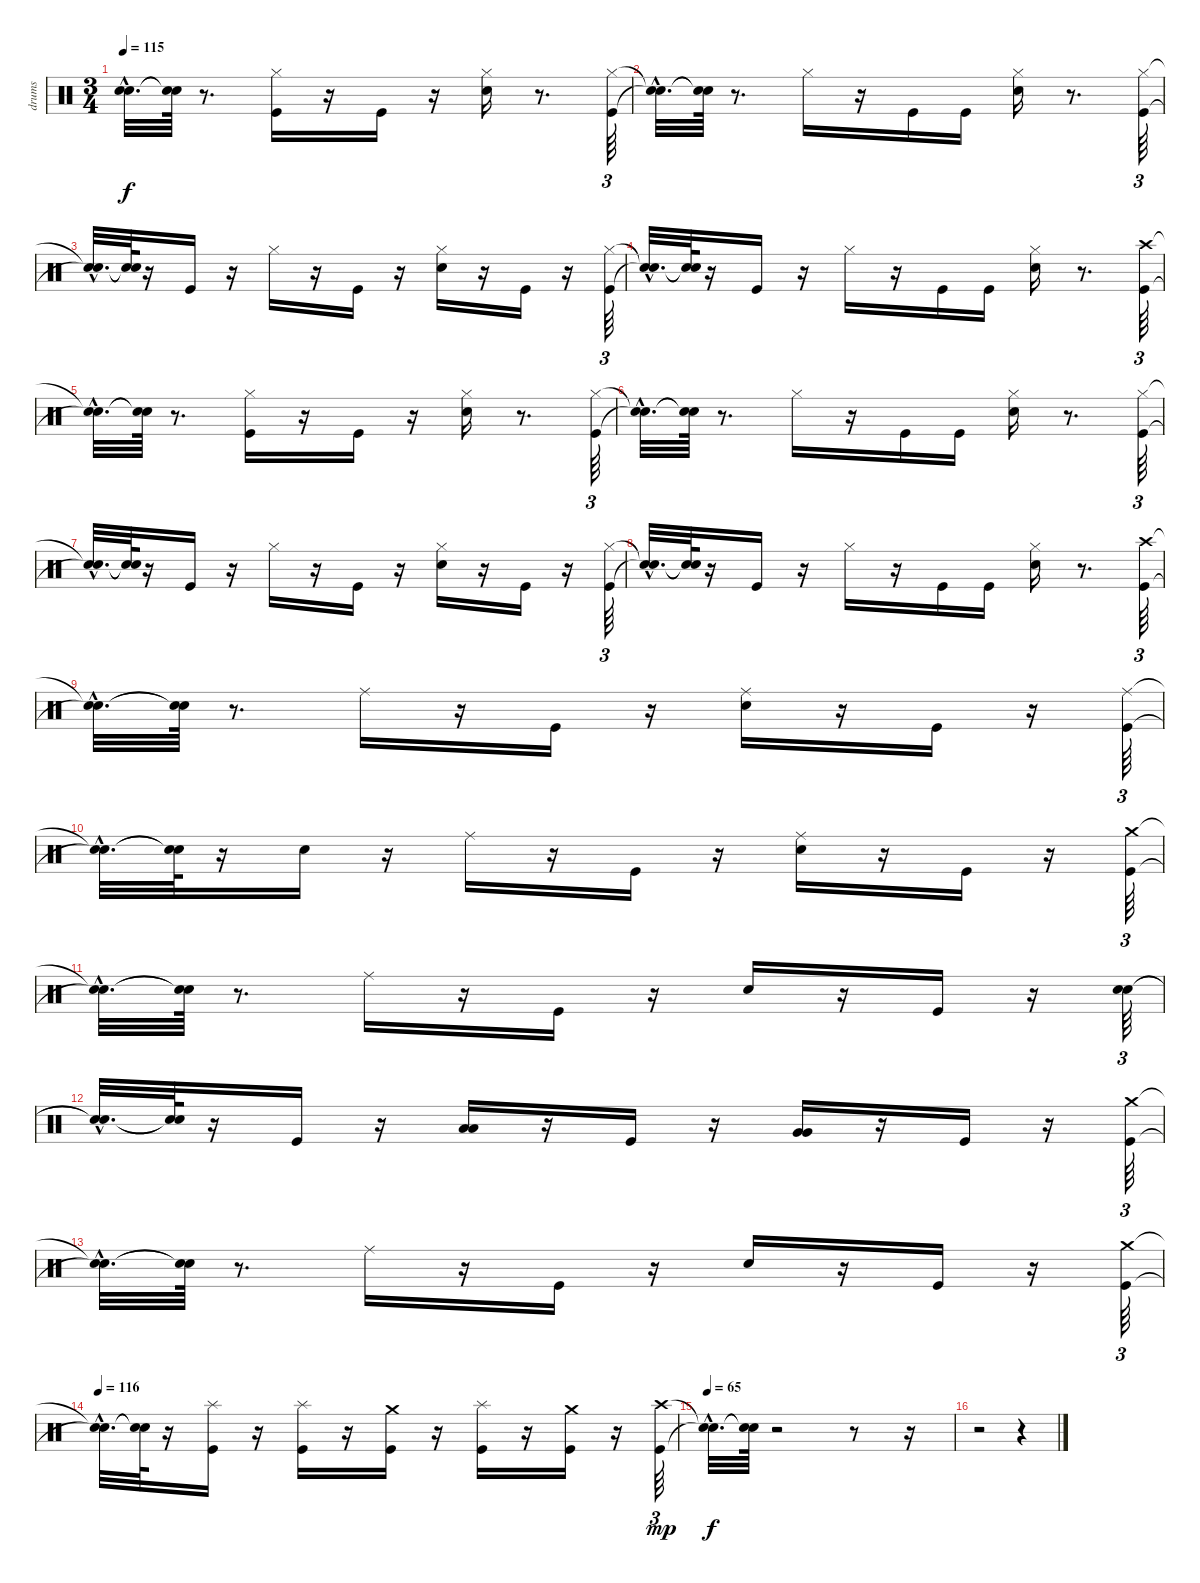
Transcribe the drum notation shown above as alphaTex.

\track ("drums" "drums") {instrument percussion}
\staff {score}
\articulation defaults
\ts (3 4)
\tempo 115
\clef neutral
\ks c
("Snare (hit)"{hac t} "Snare (hit)"{hac t}).32{d dy f} ("Snare (hit)"{t} "Snare (hit)"{t}).64 r.8{d} ("Hi-Hat (closed)" "Kick (hit)").16 r.16 "Kick (hit)".16 r.16 ("Hi-Hat (closed)" "Electric Snare (hit)").16 r.8{d} ("Hi-Hat (closed)" "Kick (hit)").64{tu (3 2)} |
("Snare (hit)"{hac t} "Snare (hit)"{hac t}).32{d} ("Snare (hit)"{t} "Snare (hit)"{t}).64 r.8{d} "Hi-Hat (closed)".16 r.16 "Kick (hit)".16 "Kick (hit)".16 ("Hi-Hat (closed)" "Electric Snare (hit)").16 r.8{d} ("Hi-Hat (closed)" "Kick (hit)").64{tu (3 2)} |
("Snare (hit)"{hac t} "Snare (hit)"{hac t}).32{d} ("Snare (hit)"{t} "Snare (hit)"{t}).64 r.16 "Kick (hit)".16 r.16 "Hi-Hat (closed)".16 r.16 "Kick (hit)".16 r.16 ("Hi-Hat (closed)" "Electric Snare (hit)").16 r.16 "Kick (hit)".16 r.16 ("Hi-Hat (closed)" "Kick (hit)").64{tu (3 2)} |
("Snare (hit)"{hac t} "Snare (hit)"{hac t}).32{d} ("Snare (hit)"{t} "Snare (hit)"{t}).64 r.16 "Kick (hit)".16 r.16 "Hi-Hat (closed)".16 r.16 "Kick (hit)".16 "Kick (hit)".16 ("Hi-Hat (closed)" "Electric Snare (hit)").16 r.8{d} ("Kick (hit)" "Crash high (hit)").64{tu (3 2)} |
("Snare (hit)"{hac t} "Snare (hit)"{hac t}).32{d} ("Snare (hit)"{t} "Snare (hit)"{t}).64 r.8{d} ("Hi-Hat (closed)" "Kick (hit)").16 r.16 "Kick (hit)".16 r.16 ("Hi-Hat (closed)" "Electric Snare (hit)").16 r.8{d} ("Hi-Hat (closed)" "Kick (hit)").64{tu (3 2)} |
("Snare (hit)"{hac t} "Snare (hit)"{hac t}).32{d} ("Snare (hit)"{t} "Snare (hit)"{t}).64 r.8{d} "Hi-Hat (closed)".16 r.16 "Kick (hit)".16 "Kick (hit)".16 ("Hi-Hat (closed)" "Electric Snare (hit)").16 r.8{d} ("Hi-Hat (closed)" "Kick (hit)").64{tu (3 2)} |
("Snare (hit)"{hac t} "Snare (hit)"{hac t}).32{d} ("Snare (hit)"{t} "Snare (hit)"{t}).64 r.16 "Kick (hit)".16 r.16 "Hi-Hat (closed)".16 r.16 "Kick (hit)".16 r.16 ("Hi-Hat (closed)" "Electric Snare (hit)").16 r.16 "Kick (hit)".16 r.16 ("Hi-Hat (closed)" "Kick (hit)").64{tu (3 2)} |
("Snare (hit)"{hac t} "Snare (hit)"{hac t}).32{d} ("Snare (hit)"{t} "Snare (hit)"{t}).64 r.16 "Kick (hit)".16 r.16 "Hi-Hat (closed)".16 r.16 "Kick (hit)".16 "Kick (hit)".16 ("Hi-Hat (closed)" "Electric Snare (hit)").16 r.8{d} ("Crash high (hit)" "Kick (hit)").64{tu (3 2)} |
("Snare (hit)"{hac t} "Snare (hit)"{hac t}).32{d} ("Snare (hit)"{t} "Snare (hit)"{t}).64 r.8{d} "Ride (middle)".16 r.16 "Kick (hit)".16 r.16 ("Ride (middle)" "Electric Snare (hit)").16 r.16 "Kick (hit)".16 r.16 ("Ride (middle)" "Kick (hit)").64{tu (3 2)} |
("Snare (hit)"{hac t} "Snare (hit)"{hac t}).32{d} ("Snare (hit)"{t} "Snare (hit)"{t}).64 r.16 "Electric Snare (hit)".16 r.16 "Ride (middle)".16 r.16 "Kick (hit)".16 r.16 ("Ride (middle)" "Snare (hit) 2").16 r.16 "Kick (hit)".16 r.16 ("Crash medium (hit)" "Kick (hit)").64{tu (3 2)} |
("Snare (hit)"{hac t} "Snare (hit)"{hac t}).32{d} ("Snare (hit)"{t} "Snare (hit)"{t}).64 r.8{d} "Ride (middle)".16 r.16 "Kick (hit)".16 r.16 "Electric Snare (hit)".16 r.16 "Kick (hit)".16 r.16 ("Electric Snare (hit)" "Electric Snare (hit)").64{tu (3 2)} |
("Snare (hit)"{hac t} "Snare (hit)"{hac t}).32{d} ("Snare (hit)"{t} "Snare (hit)"{t}).64 r.16 "Kick (hit)".16 r.16 ("Low Tom (hit)" "Low Tom (hit)").16 r.16 "Kick (hit)".16 r.16 ("Very Low Tom (hit)" "Very Low Tom (hit)").16 r.16 "Kick (hit)".16 r.16 ("Crash medium (hit)" "Kick (hit)").64{tu (3 2)} |
("Snare (hit)"{hac t} "Snare (hit)"{hac t}).32{d} ("Snare (hit)"{t} "Snare (hit)"{t}).64 r.8{d} "Ride (middle)".16 r.16 "Kick (hit)".16 r.16 "Electric Snare (hit)".16 r.16 "Kick (hit)".16 r.16 ("Crash medium (hit)" "Kick (hit)").64{tu (3 2)} |
\tempo 116
("Snare (hit)"{hac t} "Snare (hit)"{hac t}).32{d} ("Snare (hit)"{t} "Snare (hit)"{t}).64 r.16 ("Splash (hit)" "Kick (hit)").16 r.16 ("Splash (hit)" "Kick (hit)").16 r.16 ("Crash medium (hit)" "Kick (hit)").16 r.16 ("Splash (hit)" "Kick (hit)").16 r.16 ("Crash medium (hit)" "Kick (hit)").16 r.16 ("Kick (hit)" "Crash high (hit)").64{tu (3 2) dy mp} |
\tempo 65
("Snare (hit)"{hac t} "Snare (hit)"{hac t}).32{d dy f} ("Snare (hit)"{t} "Snare (hit)"{t}).64 r.2 r.8 r.16 |
r.2 r.4
